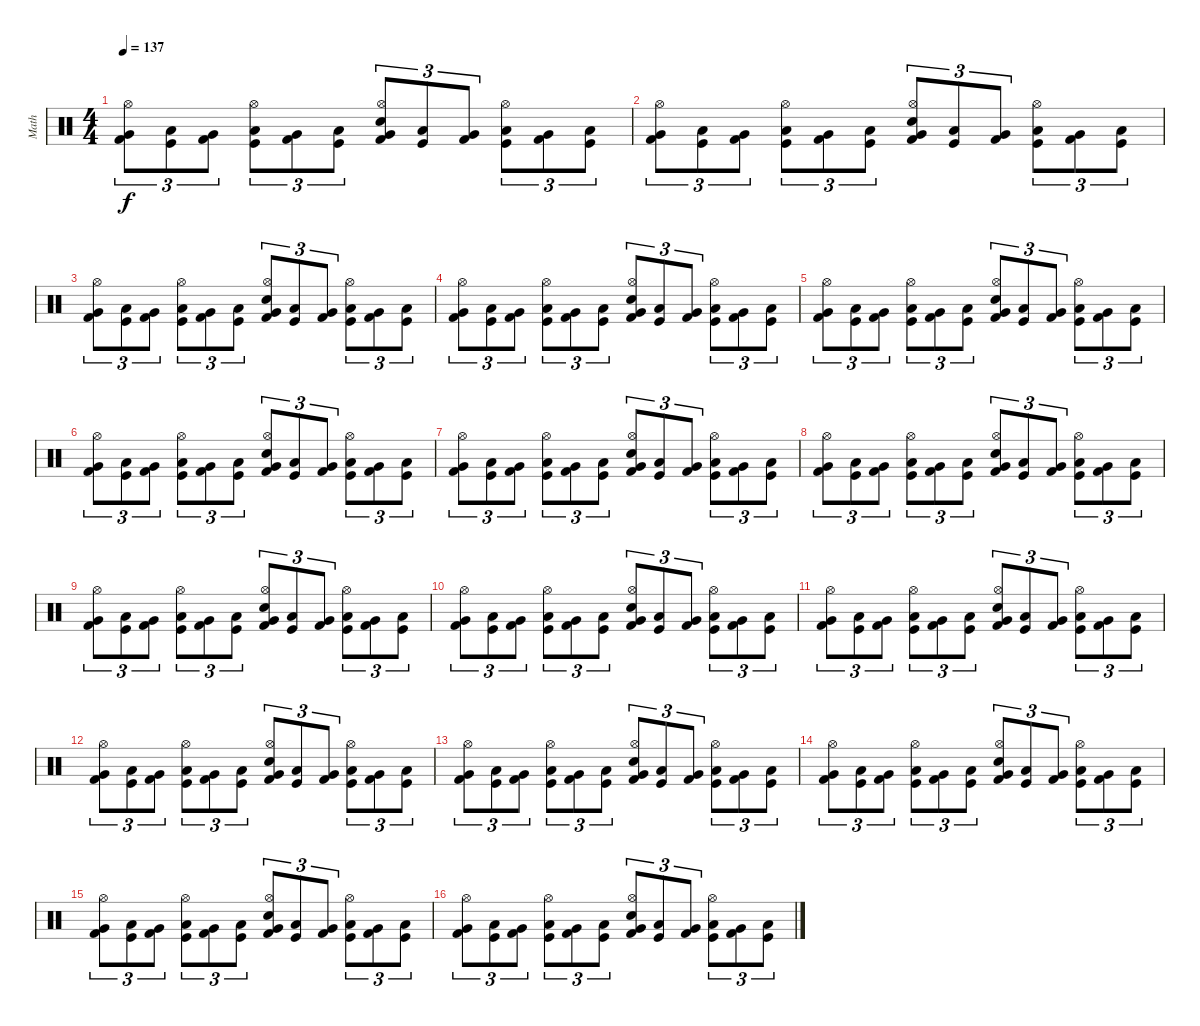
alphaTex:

\track ("Math" "Math") {instrument percussion}
\staff {score}
\articulation defaults
\ts (4 4)
\tempo 137
\clef neutral
\ks c
("Kick (hit) 2" "Very Low Tom (hit)" "Hi-Hat (open)").8{tu (3 2) dy f} ("Kick (hit)" "Low Tom (hit)").8{tu (3 2)} ("Kick (hit) 2" "Very Low Tom (hit)").8{tu (3 2)} ("Kick (hit)" "Low Tom (hit)" "Hi-Hat (open)").8{tu (3 2)} ("Kick (hit) 2" "Very Low Tom (hit)").8{tu (3 2)} ("Kick (hit)" "Low Tom (hit)").8{tu (3 2)} ("Kick (hit) 2" "Very Low Tom (hit)" "Snare (hit) 2" "Hi-Hat (open)").8{tu (3 2)} ("Kick (hit)" "Low Tom (hit)").8{tu (3 2)} ("Kick (hit) 2" "Very Low Tom (hit)").8{tu (3 2)} ("Kick (hit)" "Low Tom (hit)" "Hi-Hat (open)").8{tu (3 2)} ("Kick (hit) 2" "Very Low Tom (hit)").8{tu (3 2)} ("Kick (hit)" "Low Tom (hit)").8{tu (3 2)} |
("Kick (hit) 2" "Very Low Tom (hit)" "Hi-Hat (open)").8{tu (3 2)} ("Kick (hit)" "Low Tom (hit)").8{tu (3 2)} ("Kick (hit) 2" "Very Low Tom (hit)").8{tu (3 2)} ("Kick (hit)" "Low Tom (hit)" "Hi-Hat (open)").8{tu (3 2)} ("Kick (hit) 2" "Very Low Tom (hit)").8{tu (3 2)} ("Kick (hit)" "Low Tom (hit)").8{tu (3 2)} ("Kick (hit) 2" "Very Low Tom (hit)" "Snare (hit) 2" "Hi-Hat (open)").8{tu (3 2)} ("Kick (hit)" "Low Tom (hit)").8{tu (3 2)} ("Kick (hit) 2" "Very Low Tom (hit)").8{tu (3 2)} ("Kick (hit)" "Low Tom (hit)" "Hi-Hat (open)").8{tu (3 2)} ("Kick (hit) 2" "Very Low Tom (hit)").8{tu (3 2)} ("Kick (hit)" "Low Tom (hit)").8{tu (3 2)} |
("Kick (hit) 2" "Very Low Tom (hit)" "Hi-Hat (open)").8{tu (3 2)} ("Kick (hit)" "Low Tom (hit)").8{tu (3 2)} ("Kick (hit) 2" "Very Low Tom (hit)").8{tu (3 2)} ("Kick (hit)" "Low Tom (hit)" "Hi-Hat (open)").8{tu (3 2)} ("Kick (hit) 2" "Very Low Tom (hit)").8{tu (3 2)} ("Kick (hit)" "Low Tom (hit)").8{tu (3 2)} ("Kick (hit) 2" "Very Low Tom (hit)" "Snare (hit) 2" "Hi-Hat (open)").8{tu (3 2)} ("Kick (hit)" "Low Tom (hit)").8{tu (3 2)} ("Kick (hit) 2" "Very Low Tom (hit)").8{tu (3 2)} ("Kick (hit)" "Low Tom (hit)" "Hi-Hat (open)").8{tu (3 2)} ("Kick (hit) 2" "Very Low Tom (hit)").8{tu (3 2)} ("Kick (hit)" "Low Tom (hit)").8{tu (3 2)} |
("Kick (hit) 2" "Very Low Tom (hit)" "Hi-Hat (open)").8{tu (3 2)} ("Kick (hit)" "Low Tom (hit)").8{tu (3 2)} ("Kick (hit) 2" "Very Low Tom (hit)").8{tu (3 2)} ("Kick (hit)" "Low Tom (hit)" "Hi-Hat (open)").8{tu (3 2)} ("Kick (hit) 2" "Very Low Tom (hit)").8{tu (3 2)} ("Kick (hit)" "Low Tom (hit)").8{tu (3 2)} ("Kick (hit) 2" "Very Low Tom (hit)" "Snare (hit) 2" "Hi-Hat (open)").8{tu (3 2)} ("Kick (hit)" "Low Tom (hit)").8{tu (3 2)} ("Kick (hit) 2" "Very Low Tom (hit)").8{tu (3 2)} ("Kick (hit)" "Low Tom (hit)" "Hi-Hat (open)").8{tu (3 2)} ("Kick (hit) 2" "Very Low Tom (hit)").8{tu (3 2)} ("Kick (hit)" "Low Tom (hit)").8{tu (3 2)} |
("Kick (hit) 2" "Very Low Tom (hit)" "Hi-Hat (open)").8{tu (3 2)} ("Kick (hit)" "Low Tom (hit)").8{tu (3 2)} ("Kick (hit) 2" "Very Low Tom (hit)").8{tu (3 2)} ("Kick (hit)" "Low Tom (hit)" "Hi-Hat (open)").8{tu (3 2)} ("Kick (hit) 2" "Very Low Tom (hit)").8{tu (3 2)} ("Kick (hit)" "Low Tom (hit)").8{tu (3 2)} ("Kick (hit) 2" "Very Low Tom (hit)" "Snare (hit) 2" "Hi-Hat (open)").8{tu (3 2)} ("Kick (hit)" "Low Tom (hit)").8{tu (3 2)} ("Kick (hit) 2" "Very Low Tom (hit)").8{tu (3 2)} ("Kick (hit)" "Low Tom (hit)" "Hi-Hat (open)").8{tu (3 2)} ("Kick (hit) 2" "Very Low Tom (hit)").8{tu (3 2)} ("Kick (hit)" "Low Tom (hit)").8{tu (3 2)} |
("Kick (hit) 2" "Very Low Tom (hit)" "Hi-Hat (open)").8{tu (3 2)} ("Kick (hit)" "Low Tom (hit)").8{tu (3 2)} ("Kick (hit) 2" "Very Low Tom (hit)").8{tu (3 2)} ("Kick (hit)" "Low Tom (hit)" "Hi-Hat (open)").8{tu (3 2)} ("Kick (hit) 2" "Very Low Tom (hit)").8{tu (3 2)} ("Kick (hit)" "Low Tom (hit)").8{tu (3 2)} ("Kick (hit) 2" "Very Low Tom (hit)" "Snare (hit) 2" "Hi-Hat (open)").8{tu (3 2)} ("Kick (hit)" "Low Tom (hit)").8{tu (3 2)} ("Kick (hit) 2" "Very Low Tom (hit)").8{tu (3 2)} ("Kick (hit)" "Low Tom (hit)" "Hi-Hat (open)").8{tu (3 2)} ("Kick (hit) 2" "Very Low Tom (hit)").8{tu (3 2)} ("Kick (hit)" "Low Tom (hit)").8{tu (3 2)} |
("Kick (hit) 2" "Very Low Tom (hit)" "Hi-Hat (open)").8{tu (3 2)} ("Kick (hit)" "Low Tom (hit)").8{tu (3 2)} ("Kick (hit) 2" "Very Low Tom (hit)").8{tu (3 2)} ("Kick (hit)" "Low Tom (hit)" "Hi-Hat (open)").8{tu (3 2)} ("Kick (hit) 2" "Very Low Tom (hit)").8{tu (3 2)} ("Kick (hit)" "Low Tom (hit)").8{tu (3 2)} ("Kick (hit) 2" "Very Low Tom (hit)" "Snare (hit) 2" "Hi-Hat (open)").8{tu (3 2)} ("Kick (hit)" "Low Tom (hit)").8{tu (3 2)} ("Kick (hit) 2" "Very Low Tom (hit)").8{tu (3 2)} ("Kick (hit)" "Low Tom (hit)" "Hi-Hat (open)").8{tu (3 2)} ("Kick (hit) 2" "Very Low Tom (hit)").8{tu (3 2)} ("Kick (hit)" "Low Tom (hit)").8{tu (3 2)} |
("Kick (hit) 2" "Very Low Tom (hit)" "Hi-Hat (open)").8{tu (3 2)} ("Kick (hit)" "Low Tom (hit)").8{tu (3 2)} ("Kick (hit) 2" "Very Low Tom (hit)").8{tu (3 2)} ("Kick (hit)" "Low Tom (hit)" "Hi-Hat (open)").8{tu (3 2)} ("Kick (hit) 2" "Very Low Tom (hit)").8{tu (3 2)} ("Kick (hit)" "Low Tom (hit)").8{tu (3 2)} ("Kick (hit) 2" "Very Low Tom (hit)" "Snare (hit) 2" "Hi-Hat (open)").8{tu (3 2)} ("Kick (hit)" "Low Tom (hit)").8{tu (3 2)} ("Kick (hit) 2" "Very Low Tom (hit)").8{tu (3 2)} ("Kick (hit)" "Low Tom (hit)" "Hi-Hat (open)").8{tu (3 2)} ("Kick (hit) 2" "Very Low Tom (hit)").8{tu (3 2)} ("Kick (hit)" "Low Tom (hit)").8{tu (3 2)} |
("Kick (hit) 2" "Very Low Tom (hit)" "Hi-Hat (open)").8{tu (3 2)} ("Kick (hit)" "Low Tom (hit)").8{tu (3 2)} ("Kick (hit) 2" "Very Low Tom (hit)").8{tu (3 2)} ("Kick (hit)" "Low Tom (hit)" "Hi-Hat (open)").8{tu (3 2)} ("Kick (hit) 2" "Very Low Tom (hit)").8{tu (3 2)} ("Kick (hit)" "Low Tom (hit)").8{tu (3 2)} ("Kick (hit) 2" "Very Low Tom (hit)" "Snare (hit) 2" "Hi-Hat (open)").8{tu (3 2)} ("Kick (hit)" "Low Tom (hit)").8{tu (3 2)} ("Kick (hit) 2" "Very Low Tom (hit)").8{tu (3 2)} ("Kick (hit)" "Low Tom (hit)" "Hi-Hat (open)").8{tu (3 2)} ("Kick (hit) 2" "Very Low Tom (hit)").8{tu (3 2)} ("Kick (hit)" "Low Tom (hit)").8{tu (3 2)} |
("Kick (hit) 2" "Very Low Tom (hit)" "Hi-Hat (open)").8{tu (3 2)} ("Kick (hit)" "Low Tom (hit)").8{tu (3 2)} ("Kick (hit) 2" "Very Low Tom (hit)").8{tu (3 2)} ("Kick (hit)" "Low Tom (hit)" "Hi-Hat (open)").8{tu (3 2)} ("Kick (hit) 2" "Very Low Tom (hit)").8{tu (3 2)} ("Kick (hit)" "Low Tom (hit)").8{tu (3 2)} ("Kick (hit) 2" "Very Low Tom (hit)" "Snare (hit) 2" "Hi-Hat (open)").8{tu (3 2)} ("Kick (hit)" "Low Tom (hit)").8{tu (3 2)} ("Kick (hit) 2" "Very Low Tom (hit)").8{tu (3 2)} ("Kick (hit)" "Low Tom (hit)" "Hi-Hat (open)").8{tu (3 2)} ("Kick (hit) 2" "Very Low Tom (hit)").8{tu (3 2)} ("Kick (hit)" "Low Tom (hit)").8{tu (3 2)} |
("Kick (hit) 2" "Very Low Tom (hit)" "Hi-Hat (open)").8{tu (3 2)} ("Kick (hit)" "Low Tom (hit)").8{tu (3 2)} ("Kick (hit) 2" "Very Low Tom (hit)").8{tu (3 2)} ("Kick (hit)" "Low Tom (hit)" "Hi-Hat (open)").8{tu (3 2)} ("Kick (hit) 2" "Very Low Tom (hit)").8{tu (3 2)} ("Kick (hit)" "Low Tom (hit)").8{tu (3 2)} ("Kick (hit) 2" "Very Low Tom (hit)" "Snare (hit) 2" "Hi-Hat (open)").8{tu (3 2)} ("Kick (hit)" "Low Tom (hit)").8{tu (3 2)} ("Kick (hit) 2" "Very Low Tom (hit)").8{tu (3 2)} ("Kick (hit)" "Low Tom (hit)" "Hi-Hat (open)").8{tu (3 2)} ("Kick (hit) 2" "Very Low Tom (hit)").8{tu (3 2)} ("Kick (hit)" "Low Tom (hit)").8{tu (3 2)} |
("Kick (hit) 2" "Very Low Tom (hit)" "Hi-Hat (open)").8{tu (3 2)} ("Kick (hit)" "Low Tom (hit)").8{tu (3 2)} ("Kick (hit) 2" "Very Low Tom (hit)").8{tu (3 2)} ("Kick (hit)" "Low Tom (hit)" "Hi-Hat (open)").8{tu (3 2)} ("Kick (hit) 2" "Very Low Tom (hit)").8{tu (3 2)} ("Kick (hit)" "Low Tom (hit)").8{tu (3 2)} ("Kick (hit) 2" "Very Low Tom (hit)" "Snare (hit) 2" "Hi-Hat (open)").8{tu (3 2)} ("Kick (hit)" "Low Tom (hit)").8{tu (3 2)} ("Kick (hit) 2" "Very Low Tom (hit)").8{tu (3 2)} ("Kick (hit)" "Low Tom (hit)" "Hi-Hat (open)").8{tu (3 2)} ("Kick (hit) 2" "Very Low Tom (hit)").8{tu (3 2)} ("Kick (hit)" "Low Tom (hit)").8{tu (3 2)} |
("Kick (hit) 2" "Very Low Tom (hit)" "Hi-Hat (open)").8{tu (3 2)} ("Kick (hit)" "Low Tom (hit)").8{tu (3 2)} ("Kick (hit) 2" "Very Low Tom (hit)").8{tu (3 2)} ("Kick (hit)" "Low Tom (hit)" "Hi-Hat (open)").8{tu (3 2)} ("Kick (hit) 2" "Very Low Tom (hit)").8{tu (3 2)} ("Kick (hit)" "Low Tom (hit)").8{tu (3 2)} ("Kick (hit) 2" "Very Low Tom (hit)" "Snare (hit) 2" "Hi-Hat (open)").8{tu (3 2)} ("Kick (hit)" "Low Tom (hit)").8{tu (3 2)} ("Kick (hit) 2" "Very Low Tom (hit)").8{tu (3 2)} ("Kick (hit)" "Low Tom (hit)" "Hi-Hat (open)").8{tu (3 2)} ("Kick (hit) 2" "Very Low Tom (hit)").8{tu (3 2)} ("Kick (hit)" "Low Tom (hit)").8{tu (3 2)} |
("Kick (hit) 2" "Very Low Tom (hit)" "Hi-Hat (open)").8{tu (3 2)} ("Kick (hit)" "Low Tom (hit)").8{tu (3 2)} ("Kick (hit) 2" "Very Low Tom (hit)").8{tu (3 2)} ("Kick (hit)" "Low Tom (hit)" "Hi-Hat (open)").8{tu (3 2)} ("Kick (hit) 2" "Very Low Tom (hit)").8{tu (3 2)} ("Kick (hit)" "Low Tom (hit)").8{tu (3 2)} ("Kick (hit) 2" "Very Low Tom (hit)" "Snare (hit) 2" "Hi-Hat (open)").8{tu (3 2)} ("Kick (hit)" "Low Tom (hit)").8{tu (3 2)} ("Kick (hit) 2" "Very Low Tom (hit)").8{tu (3 2)} ("Kick (hit)" "Low Tom (hit)" "Hi-Hat (open)").8{tu (3 2)} ("Kick (hit) 2" "Very Low Tom (hit)").8{tu (3 2)} ("Kick (hit)" "Low Tom (hit)").8{tu (3 2)} |
("Kick (hit) 2" "Very Low Tom (hit)" "Hi-Hat (open)").8{tu (3 2)} ("Kick (hit)" "Low Tom (hit)").8{tu (3 2)} ("Kick (hit) 2" "Very Low Tom (hit)").8{tu (3 2)} ("Kick (hit)" "Low Tom (hit)" "Hi-Hat (open)").8{tu (3 2)} ("Kick (hit) 2" "Very Low Tom (hit)").8{tu (3 2)} ("Kick (hit)" "Low Tom (hit)").8{tu (3 2)} ("Kick (hit) 2" "Very Low Tom (hit)" "Snare (hit) 2" "Hi-Hat (open)").8{tu (3 2)} ("Kick (hit)" "Low Tom (hit)").8{tu (3 2)} ("Kick (hit) 2" "Very Low Tom (hit)").8{tu (3 2)} ("Kick (hit)" "Low Tom (hit)" "Hi-Hat (open)").8{tu (3 2)} ("Kick (hit) 2" "Very Low Tom (hit)").8{tu (3 2)} ("Kick (hit)" "Low Tom (hit)").8{tu (3 2)} |
("Kick (hit) 2" "Very Low Tom (hit)" "Hi-Hat (open)").8{tu (3 2)} ("Kick (hit)" "Low Tom (hit)").8{tu (3 2)} ("Kick (hit) 2" "Very Low Tom (hit)").8{tu (3 2)} ("Kick (hit)" "Low Tom (hit)" "Hi-Hat (open)").8{tu (3 2)} ("Kick (hit) 2" "Very Low Tom (hit)").8{tu (3 2)} ("Kick (hit)" "Low Tom (hit)").8{tu (3 2)} ("Kick (hit) 2" "Very Low Tom (hit)" "Snare (hit) 2" "Hi-Hat (open)").8{tu (3 2)} ("Kick (hit)" "Low Tom (hit)").8{tu (3 2)} ("Kick (hit) 2" "Very Low Tom (hit)").8{tu (3 2)} ("Kick (hit)" "Low Tom (hit)" "Hi-Hat (open)").8{tu (3 2)} ("Kick (hit) 2" "Very Low Tom (hit)").8{tu (3 2)} ("Kick (hit)" "Low Tom (hit)").8{tu (3 2)}
